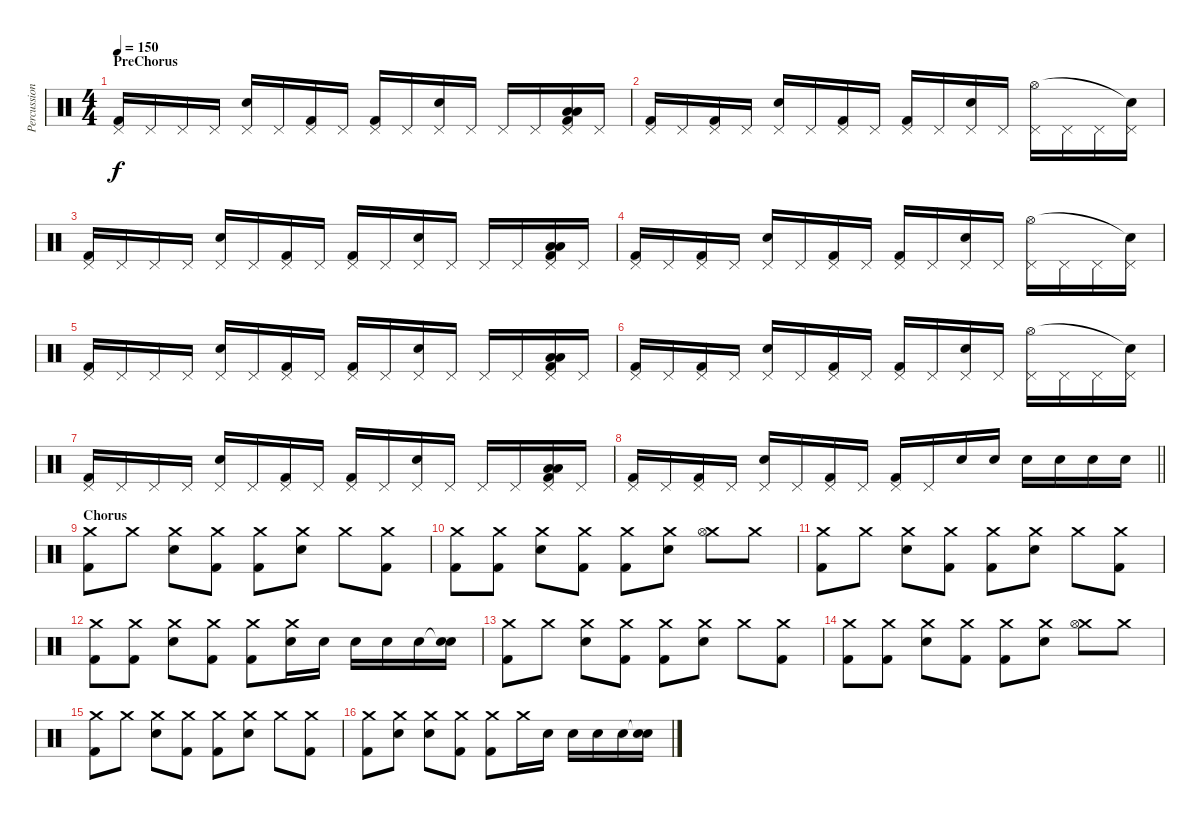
\track ("Percussion" "Percussion") {instrument percussion}
\staff {score}
\articulation defaults
\ts (4 4)
\section ("" "PreChorus")
\tempo 150
\clef neutral
\ks c
("Pedal Hi-Hat (hit)" "Kick (hit) 2").16{dy f} "Pedal Hi-Hat (hit)".16 "Pedal Hi-Hat (hit)".16 "Pedal Hi-Hat (hit)".16 ("Pedal Hi-Hat (hit)" "Electric Snare (hit)").16 "Pedal Hi-Hat (hit)".16 ("Pedal Hi-Hat (hit)" "Kick (hit) 2").16 "Pedal Hi-Hat (hit)".16 ("Pedal Hi-Hat (hit)" "Kick (hit) 2").16 "Pedal Hi-Hat (hit)".16 ("Pedal Hi-Hat (hit)" "Electric Snare (hit)").16 "Pedal Hi-Hat (hit)".16 "Pedal Hi-Hat (hit)".16 "Pedal Hi-Hat (hit)".16 ("Pedal Hi-Hat (hit)" "Kick (hit) 2" "Low Tom (hit)" "Low Floor Tom (hit)").16 "Pedal Hi-Hat (hit)".16 |
("Pedal Hi-Hat (hit)" "Kick (hit) 2").16 "Pedal Hi-Hat (hit)".16 ("Pedal Hi-Hat (hit)" "Kick (hit) 2").16 "Pedal Hi-Hat (hit)".16 ("Pedal Hi-Hat (hit)" "Electric Snare (hit)").16 "Pedal Hi-Hat (hit)".16 ("Pedal Hi-Hat (hit)" "Kick (hit) 2").16 "Pedal Hi-Hat (hit)".16 ("Pedal Hi-Hat (hit)" "Kick (hit) 2").16 "Pedal Hi-Hat (hit)".16 ("Pedal Hi-Hat (hit)" "Electric Snare (hit)").16 "Pedal Hi-Hat (hit)".16 ("Pedal Hi-Hat (hit)" "Hi-Hat (open)").16 "Pedal Hi-Hat (hit)".16 "Pedal Hi-Hat (hit)".16 ("Pedal Hi-Hat (hit)" "Snare (hit)"{t}).16 |
("Pedal Hi-Hat (hit)" "Kick (hit) 2").16 "Pedal Hi-Hat (hit)".16 "Pedal Hi-Hat (hit)".16 "Pedal Hi-Hat (hit)".16 ("Pedal Hi-Hat (hit)" "Electric Snare (hit)").16 "Pedal Hi-Hat (hit)".16 ("Pedal Hi-Hat (hit)" "Kick (hit) 2").16 "Pedal Hi-Hat (hit)".16 ("Pedal Hi-Hat (hit)" "Kick (hit) 2").16 "Pedal Hi-Hat (hit)".16 ("Pedal Hi-Hat (hit)" "Electric Snare (hit)").16 "Pedal Hi-Hat (hit)".16 "Pedal Hi-Hat (hit)".16 "Pedal Hi-Hat (hit)".16 ("Pedal Hi-Hat (hit)" "Kick (hit) 2" "Low Tom (hit)" "Low Floor Tom (hit)").16 "Pedal Hi-Hat (hit)".16 |
("Pedal Hi-Hat (hit)" "Kick (hit) 2").16 "Pedal Hi-Hat (hit)".16 ("Pedal Hi-Hat (hit)" "Kick (hit) 2").16 "Pedal Hi-Hat (hit)".16 ("Pedal Hi-Hat (hit)" "Electric Snare (hit)").16 "Pedal Hi-Hat (hit)".16 ("Pedal Hi-Hat (hit)" "Kick (hit) 2").16 "Pedal Hi-Hat (hit)".16 ("Pedal Hi-Hat (hit)" "Kick (hit) 2").16 "Pedal Hi-Hat (hit)".16 ("Pedal Hi-Hat (hit)" "Electric Snare (hit)").16 "Pedal Hi-Hat (hit)".16 ("Pedal Hi-Hat (hit)" "Hi-Hat (open)").16 "Pedal Hi-Hat (hit)".16 "Pedal Hi-Hat (hit)".16 ("Pedal Hi-Hat (hit)" "Snare (hit)"{t}).16 |
("Pedal Hi-Hat (hit)" "Kick (hit) 2").16 "Pedal Hi-Hat (hit)".16 "Pedal Hi-Hat (hit)".16 "Pedal Hi-Hat (hit)".16 ("Pedal Hi-Hat (hit)" "Electric Snare (hit)").16 "Pedal Hi-Hat (hit)".16 ("Pedal Hi-Hat (hit)" "Kick (hit) 2").16 "Pedal Hi-Hat (hit)".16 ("Pedal Hi-Hat (hit)" "Kick (hit) 2").16 "Pedal Hi-Hat (hit)".16 ("Pedal Hi-Hat (hit)" "Electric Snare (hit)").16 "Pedal Hi-Hat (hit)".16 "Pedal Hi-Hat (hit)".16 "Pedal Hi-Hat (hit)".16 ("Pedal Hi-Hat (hit)" "Kick (hit) 2" "Low Tom (hit)" "Low Floor Tom (hit)").16 "Pedal Hi-Hat (hit)".16 |
("Pedal Hi-Hat (hit)" "Kick (hit) 2").16 "Pedal Hi-Hat (hit)".16 ("Pedal Hi-Hat (hit)" "Kick (hit) 2").16 "Pedal Hi-Hat (hit)".16 ("Pedal Hi-Hat (hit)" "Electric Snare (hit)").16 "Pedal Hi-Hat (hit)".16 ("Pedal Hi-Hat (hit)" "Kick (hit) 2").16 "Pedal Hi-Hat (hit)".16 ("Pedal Hi-Hat (hit)" "Kick (hit) 2").16 "Pedal Hi-Hat (hit)".16 ("Pedal Hi-Hat (hit)" "Electric Snare (hit)").16 "Pedal Hi-Hat (hit)".16 ("Pedal Hi-Hat (hit)" "Hi-Hat (open)").16 "Pedal Hi-Hat (hit)".16 "Pedal Hi-Hat (hit)".16 ("Pedal Hi-Hat (hit)" "Snare (hit)"{t}).16 |
("Pedal Hi-Hat (hit)" "Kick (hit) 2").16 "Pedal Hi-Hat (hit)".16 "Pedal Hi-Hat (hit)".16 "Pedal Hi-Hat (hit)".16 ("Pedal Hi-Hat (hit)" "Electric Snare (hit)").16 "Pedal Hi-Hat (hit)".16 ("Pedal Hi-Hat (hit)" "Kick (hit) 2").16 "Pedal Hi-Hat (hit)".16 ("Pedal Hi-Hat (hit)" "Kick (hit) 2").16 "Pedal Hi-Hat (hit)".16 ("Pedal Hi-Hat (hit)" "Electric Snare (hit)").16 "Pedal Hi-Hat (hit)".16 "Pedal Hi-Hat (hit)".16 "Pedal Hi-Hat (hit)".16 ("Pedal Hi-Hat (hit)" "Kick (hit) 2" "Low Tom (hit)" "Low Floor Tom (hit)").16 "Pedal Hi-Hat (hit)".16 |
\barLineRight lightlight
("Pedal Hi-Hat (hit)" "Kick (hit) 2").16 "Pedal Hi-Hat (hit)".16 ("Pedal Hi-Hat (hit)" "Kick (hit) 2").16 "Pedal Hi-Hat (hit)".16 ("Pedal Hi-Hat (hit)" "Electric Snare (hit)").16 "Pedal Hi-Hat (hit)".16 ("Pedal Hi-Hat (hit)" "Kick (hit) 2").16 "Pedal Hi-Hat (hit)".16 ("Pedal Hi-Hat (hit)" "Kick (hit) 2").16 "Pedal Hi-Hat (hit)".16 "Electric Snare (hit)".16 "Electric Snare (hit)".16 "Electric Snare (hit)".16 "Electric Snare (hit)".16 "Electric Snare (hit)".16 "Electric Snare (hit)".16 |
\section ("" "Chorus")
("Crash medium (hit)" "Kick (hit) 2").8 "Crash medium (hit)".8 ("Crash medium (hit)" "Electric Snare (hit)").8 ("Crash medium (hit)" "Kick (hit) 2").8 ("Crash medium (hit)" "Kick (hit) 2").8 ("Crash medium (hit)" "Electric Snare (hit)").8 "Crash medium (hit)".8 ("Crash medium (hit)" "Kick (hit) 2").8 |
("Crash medium (hit)" "Kick (hit) 2").8 ("Crash medium (hit)" "Kick (hit) 2").8 ("Crash medium (hit)" "Electric Snare (hit)").8 ("Crash medium (hit)" "Kick (hit) 2").8 ("Crash medium (hit)" "Kick (hit) 2").8 ("Crash medium (hit)" "Electric Snare (hit)").8 ("Crash medium (hit)" "Hi-Hat (open)").8 "Crash medium (hit)".8 |
("Crash medium (hit)" "Kick (hit) 2").8 "Crash medium (hit)".8 ("Crash medium (hit)" "Electric Snare (hit)").8 ("Crash medium (hit)" "Kick (hit) 2").8 ("Crash medium (hit)" "Kick (hit) 2").8 ("Crash medium (hit)" "Electric Snare (hit)").8 "Crash medium (hit)".8 ("Crash medium (hit)" "Kick (hit) 2").8 |
("Crash medium (hit)" "Kick (hit) 2").8 ("Crash medium (hit)" "Kick (hit) 2").8 ("Crash medium (hit)" "Electric Snare (hit)").8 ("Crash medium (hit)" "Kick (hit) 2").8 ("Crash medium (hit)" "Kick (hit) 2").8 ("Crash medium (hit)" "Electric Snare (hit)").16 "Electric Snare (hit)".16 "Electric Snare (hit)".16 "Electric Snare (hit)".16 "Electric Snare (hit)".16 ("Snare (hit)"{t} "Electric Snare (hit)").16 |
("Crash medium (hit)" "Kick (hit) 2").8 "Crash medium (hit)".8 ("Crash medium (hit)" "Electric Snare (hit)").8 ("Crash medium (hit)" "Kick (hit) 2").8 ("Crash medium (hit)" "Kick (hit) 2").8 ("Crash medium (hit)" "Electric Snare (hit)").8 "Crash medium (hit)".8 ("Crash medium (hit)" "Kick (hit) 2").8 |
("Crash medium (hit)" "Kick (hit) 2").8 ("Crash medium (hit)" "Kick (hit) 2").8 ("Crash medium (hit)" "Electric Snare (hit)").8 ("Crash medium (hit)" "Kick (hit) 2").8 ("Crash medium (hit)" "Kick (hit) 2").8 ("Crash medium (hit)" "Electric Snare (hit)").8 ("Crash medium (hit)" "Hi-Hat (open)").8 "Crash medium (hit)".8 |
("Crash medium (hit)" "Kick (hit) 2").8 "Crash medium (hit)".8 ("Crash medium (hit)" "Electric Snare (hit)").8 ("Crash medium (hit)" "Kick (hit) 2").8 ("Crash medium (hit)" "Kick (hit) 2").8 ("Crash medium (hit)" "Electric Snare (hit)").8 "Crash medium (hit)".8 ("Crash medium (hit)" "Kick (hit) 2").8 |
("Crash medium (hit)" "Kick (hit) 2").8 ("Crash medium (hit)" "Electric Snare (hit)").8 ("Crash medium (hit)" "Electric Snare (hit)").8 ("Crash medium (hit)" "Kick (hit) 2").8 ("Crash medium (hit)" "Kick (hit) 2").8 "Crash medium (hit)".16 "Electric Snare (hit)".16 "Electric Snare (hit)".16 "Electric Snare (hit)".16 "Electric Snare (hit)".16 ("Snare (hit)"{t} "Electric Snare (hit)").16
